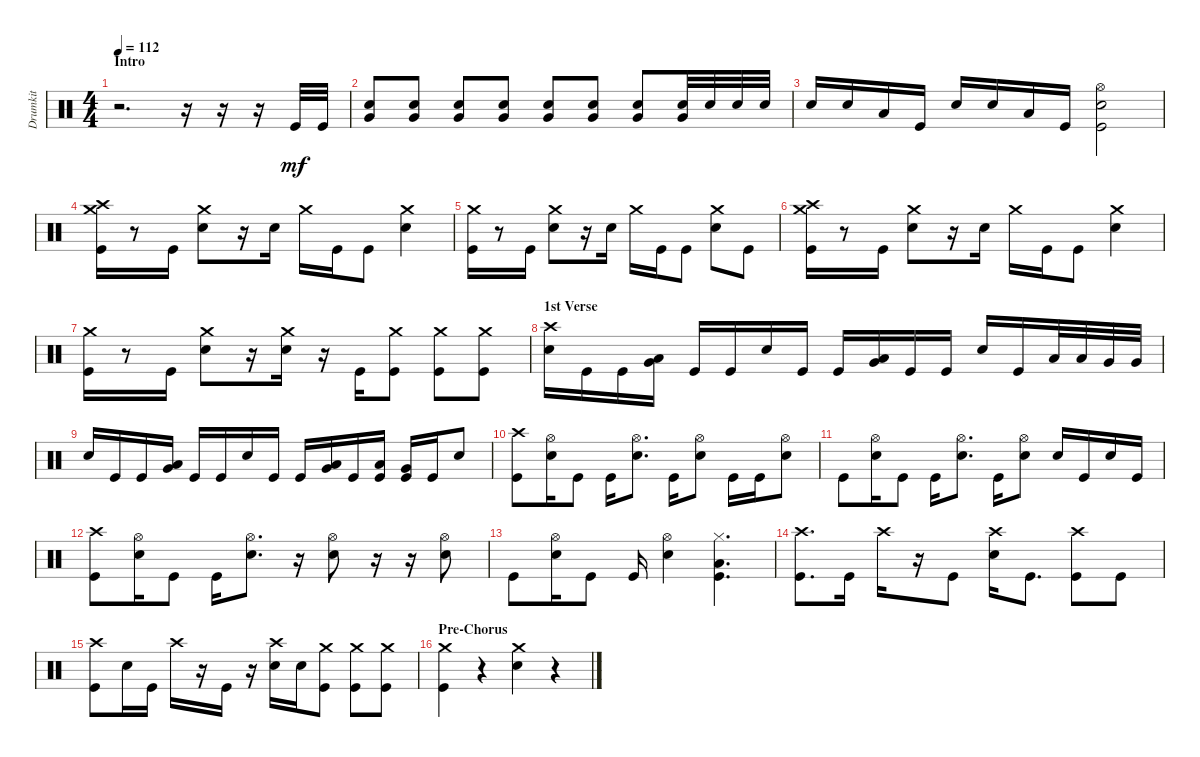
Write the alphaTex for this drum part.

\track ("Drumkit" "Drumkit") {instrument percussion}
\staff {score}
\articulation defaults
\ts (4 4)
\section ("" "Intro")
\tempo 112
\clef neutral
\ks c
r.2{d dy mf} r.16 r.16 r.16 "Kick (hit)".32 "Kick (hit)".32 |
("Snare (hit) 2" "Very Low Tom (hit)").8 ("Snare (hit) 2" "Very Low Tom (hit)").8 ("Snare (hit) 2" "Very Low Tom (hit)").8 ("Snare (hit) 2" "Very Low Tom (hit)").8 ("Snare (hit) 2" "Very Low Tom (hit)").8 ("Snare (hit) 2" "Very Low Tom (hit)").8 ("Snare (hit) 2" "Very Low Tom (hit)").8 ("Snare (hit) 2" "Very Low Tom (hit)").32 "Snare (hit) 2".32 "Snare (hit) 2".32 "Snare (hit) 2".32 |
"Snare (hit) 2".16 "Snare (hit) 2".16 "Low Floor Tom (hit)".16 "Kick (hit)".16 "Snare (hit) 2".16 "Snare (hit) 2".16 "Low Floor Tom (hit)".16 "Kick (hit)".16 ("Kick (hit)" "Snare (hit) 2" "Hi-Hat (open)").2 |
("Kick (hit)" "Crash high (hit)" "Crash medium (hit)").16 r.8 "Kick (hit)".16 ("Snare (hit) 2" "Crash medium (hit)").8 r.16 "Snare (hit) 2".16 "Crash medium (hit)".16 "Kick (hit)".16 "Kick (hit)".8 ("Snare (hit) 2" "Crash medium (hit)").4 |
("Kick (hit)" "Crash medium (hit)").16 r.8 "Kick (hit)".16 ("Snare (hit) 2" "Crash medium (hit)").8 r.16 "Snare (hit) 2".16 "Crash medium (hit)".16 "Kick (hit)".16 "Kick (hit)".8 ("Snare (hit) 2" "Crash medium (hit)").8 "Kick (hit)".8 |
("Kick (hit)" "Crash high (hit)" "Crash medium (hit)").16 r.8 "Kick (hit)".16 ("Snare (hit) 2" "Crash medium (hit)").8 r.16 "Snare (hit) 2".16 "Crash medium (hit)".16 "Kick (hit)".16 "Kick (hit)".8 ("Snare (hit) 2" "Crash medium (hit)").4 |
("Kick (hit)" "Crash medium (hit)").16 r.8 "Kick (hit)".16 ("Snare (hit) 2" "Crash medium (hit)").8 r.16 ("Snare (hit) 2" "Crash medium (hit)").16 r.16 "Kick (hit)".16 ("Kick (hit)" "Crash medium (hit)").8 ("Crash medium (hit)" "Kick (hit)").8 ("Kick (hit)" "Crash medium (hit)").8 |
\section ("" "1st Verse")
("Crash high (hit)" "Snare (hit) 2").16 "Kick (hit)".16 "Kick (hit)".16 ("Very Low Tom (hit)" "Low Tom (hit)").16 "Kick (hit)".16 "Kick (hit)".16 "Snare (hit) 2".16 "Kick (hit)".16 "Kick (hit)".16 ("Very Low Tom (hit)" "Low Tom (hit)").16 "Kick (hit)".16 "Kick (hit)".16 "Snare (hit) 2".16 "Kick (hit)".16 "Low Tom (hit)".32 "Low Tom (hit)".32 "Very Low Tom (hit)".32 "Very Low Tom (hit)".32 |
"Snare (hit) 2".16 "Kick (hit)".16 "Kick (hit)".16 ("Very Low Tom (hit)" "Low Tom (hit)").16 "Kick (hit)".16 "Kick (hit)".16 "Snare (hit) 2".16 "Kick (hit)".16 "Kick (hit)".16 ("Very Low Tom (hit)" "Low Tom (hit)").16 "Kick (hit)".16 ("Kick (hit)" "Low Tom (hit)").16 ("Kick (hit)" "Very Low Tom (hit)").16 "Kick (hit)".16 "Snare (hit) 2".8 |
("Kick (hit)" "Crash high (hit)").8 ("Snare (hit) 2" "Hi-Hat (open)").16 "Kick (hit)".8 "Kick (hit)".16 ("Snare (hit) 2" "Hi-Hat (open)").8{d} "Kick (hit)".16 ("Snare (hit) 2" "Hi-Hat (open)").8 "Kick (hit)".16 "Kick (hit)".16 ("Snare (hit) 2" "Hi-Hat (open)").8 |
"Kick (hit)".8 ("Snare (hit) 2" "Hi-Hat (open)").16 "Kick (hit)".8 "Kick (hit)".16 ("Snare (hit) 2" "Hi-Hat (open)").8{d} "Kick (hit)".16 ("Snare (hit) 2" "Hi-Hat (open)").8 "Snare (hit) 2".16 "Kick (hit)".16 "Snare (hit) 2".16 "Kick (hit)".16 |
("Kick (hit)" "Crash high (hit)").8 ("Snare (hit) 2" "Hi-Hat (open)").16 "Kick (hit)".8 "Kick (hit)".16 ("Snare (hit) 2" "Hi-Hat (open)").8{d} r.16 ("Snare (hit) 2" "Hi-Hat (open)").8 r.16 r.16 ("Snare (hit) 2" "Hi-Hat (open)").8 |
"Kick (hit)".8 ("Snare (hit) 2" "Hi-Hat (open)").16 "Kick (hit)".8 "Kick (hit)".16 ("Snare (hit) 2" "Hi-Hat (open)").4 ("Low Floor Tom (hit)" "Kick (hit)" "Hi-Hat (closed)").4{d} |
("Kick (hit)" "Crash high (hit)").8{d} "Kick (hit)".16 "Crash high (hit)".16 r.16 "Kick (hit)".8 ("Snare (hit) 2" "Crash high (hit)").16 "Kick (hit)".8{d} ("Kick (hit)" "Crash high (hit)").8 "Kick (hit)".8 |
("Kick (hit)" "Crash high (hit)").8 "Snare (hit) 2".16 "Kick (hit)".16 "Crash high (hit)".16 r.16 "Kick (hit)".16 r.16 ("Snare (hit) 2" "Crash high (hit)").16 "Snare (hit) 2".16 ("Kick (hit)" "Crash medium (hit)").8 ("Kick (hit)" "Crash medium (hit)").8 ("Kick (hit)" "Crash medium (hit)").8 |
\section ("" "Pre-Chorus")
("Kick (hit)" "Crash medium (hit)").4 r.4 ("Snare (hit) 2" "Crash medium (hit)").4 r.4
